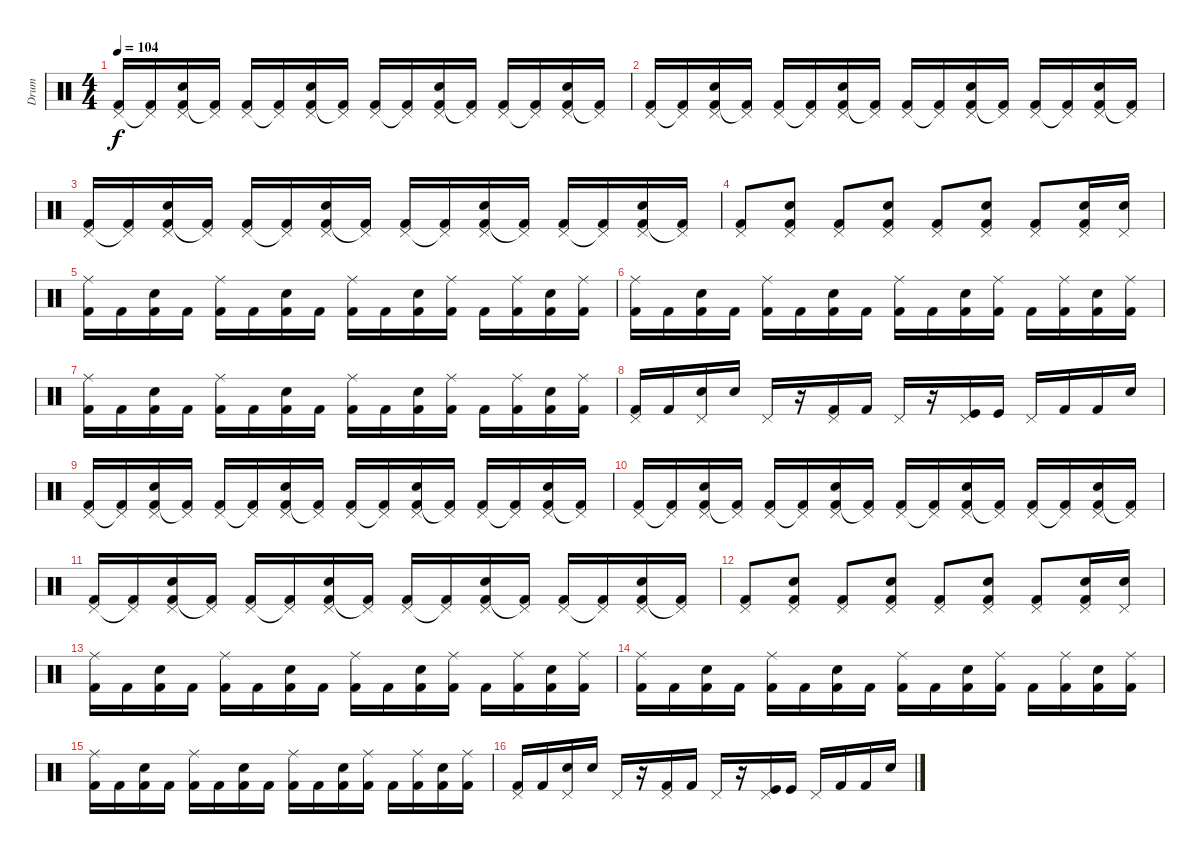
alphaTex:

\track ("Drum" "Drum") {instrument percussion}
\staff {score}
\articulation defaults
\ts (4 4)
\tempo 104
\clef neutral
\ks c
("Kick (hit) 2" "Pedal Hi-Hat (hit)").16{dy f} ("Kick (hit) 2" "Pedal Hi-Hat (hit)"{t}).16 ("Snare (hit) 2" "Kick (hit) 2" "Pedal Hi-Hat (hit)").16 ("Kick (hit) 2" "Pedal Hi-Hat (hit)"{t}).16 ("Kick (hit) 2" "Pedal Hi-Hat (hit)").16 ("Kick (hit) 2" "Pedal Hi-Hat (hit)"{t}).16 ("Snare (hit) 2" "Kick (hit) 2" "Pedal Hi-Hat (hit)").16 ("Kick (hit) 2" "Pedal Hi-Hat (hit)"{t}).16 ("Kick (hit) 2" "Pedal Hi-Hat (hit)").16 ("Kick (hit) 2" "Pedal Hi-Hat (hit)"{t}).16 ("Snare (hit) 2" "Kick (hit) 2" "Pedal Hi-Hat (hit)").16 ("Kick (hit) 2" "Pedal Hi-Hat (hit)"{t}).16 ("Kick (hit) 2" "Pedal Hi-Hat (hit)").16 ("Kick (hit) 2" "Pedal Hi-Hat (hit)"{t}).16 ("Snare (hit) 2" "Kick (hit) 2" "Pedal Hi-Hat (hit)").16 ("Kick (hit) 2" "Pedal Hi-Hat (hit)"{t}).16 |
("Kick (hit) 2" "Pedal Hi-Hat (hit)").16 ("Kick (hit) 2" "Pedal Hi-Hat (hit)"{t}).16 ("Snare (hit) 2" "Kick (hit) 2" "Pedal Hi-Hat (hit)").16 ("Kick (hit) 2" "Pedal Hi-Hat (hit)"{t}).16 ("Kick (hit) 2" "Pedal Hi-Hat (hit)").16 ("Kick (hit) 2" "Pedal Hi-Hat (hit)"{t}).16 ("Snare (hit) 2" "Kick (hit) 2" "Pedal Hi-Hat (hit)").16 ("Kick (hit) 2" "Pedal Hi-Hat (hit)"{t}).16 ("Kick (hit) 2" "Pedal Hi-Hat (hit)").16 ("Kick (hit) 2" "Pedal Hi-Hat (hit)"{t}).16 ("Snare (hit) 2" "Kick (hit) 2" "Pedal Hi-Hat (hit)").16 ("Kick (hit) 2" "Pedal Hi-Hat (hit)"{t}).16 ("Kick (hit) 2" "Pedal Hi-Hat (hit)").16 ("Kick (hit) 2" "Pedal Hi-Hat (hit)"{t}).16 ("Snare (hit) 2" "Kick (hit) 2" "Pedal Hi-Hat (hit)").16 ("Kick (hit) 2" "Pedal Hi-Hat (hit)"{t}).16 |
("Kick (hit) 2" "Pedal Hi-Hat (hit)").16 ("Kick (hit) 2" "Pedal Hi-Hat (hit)"{t}).16 ("Snare (hit) 2" "Kick (hit) 2" "Pedal Hi-Hat (hit)").16 ("Kick (hit) 2" "Pedal Hi-Hat (hit)"{t}).16 ("Kick (hit) 2" "Pedal Hi-Hat (hit)").16 ("Kick (hit) 2" "Pedal Hi-Hat (hit)"{t}).16 ("Snare (hit) 2" "Kick (hit) 2" "Pedal Hi-Hat (hit)").16 ("Kick (hit) 2" "Pedal Hi-Hat (hit)"{t}).16 ("Kick (hit) 2" "Pedal Hi-Hat (hit)").16 ("Kick (hit) 2" "Pedal Hi-Hat (hit)"{t}).16 ("Snare (hit) 2" "Kick (hit) 2" "Pedal Hi-Hat (hit)").16 ("Kick (hit) 2" "Pedal Hi-Hat (hit)"{t}).16 ("Kick (hit) 2" "Pedal Hi-Hat (hit)").16 ("Kick (hit) 2" "Pedal Hi-Hat (hit)"{t}).16 ("Snare (hit) 2" "Kick (hit) 2" "Pedal Hi-Hat (hit)").16 ("Kick (hit) 2" "Pedal Hi-Hat (hit)"{t}).16 |
("Kick (hit) 2" "Pedal Hi-Hat (hit)").8 ("Snare (hit) 2" "Kick (hit) 2" "Pedal Hi-Hat (hit)").8 ("Kick (hit) 2" "Pedal Hi-Hat (hit)").8 ("Snare (hit) 2" "Kick (hit) 2" "Pedal Hi-Hat (hit)").8 ("Kick (hit) 2" "Pedal Hi-Hat (hit)").8 ("Snare (hit) 2" "Kick (hit) 2" "Pedal Hi-Hat (hit)").8 ("Kick (hit) 2" "Pedal Hi-Hat (hit)").8 ("Snare (hit) 2" "Kick (hit) 2" "Pedal Hi-Hat (hit)").16 ("Snare (hit) 2" "Pedal Hi-Hat (hit)").16 |
("Kick (hit) 2" "Ride (middle)").16 "Kick (hit) 2".16 ("Snare (hit) 2" "Kick (hit) 2").16 "Kick (hit) 2".16 ("Kick (hit) 2" "Ride (middle)").16 "Kick (hit) 2".16 ("Snare (hit) 2" "Kick (hit) 2").16 "Kick (hit) 2".16 ("Kick (hit) 2" "Ride (middle)").16 "Kick (hit) 2".16 ("Snare (hit) 2" "Kick (hit) 2").16 ("Kick (hit) 2" "Ride (middle)").16 "Kick (hit) 2".16 ("Kick (hit) 2" "Ride (middle)").16 ("Snare (hit) 2" "Kick (hit) 2").16 ("Kick (hit) 2" "Ride (middle)").16 |
("Kick (hit) 2" "Ride (middle)").16 "Kick (hit) 2".16 ("Snare (hit) 2" "Kick (hit) 2").16 "Kick (hit) 2".16 ("Kick (hit) 2" "Ride (middle)").16 "Kick (hit) 2".16 ("Snare (hit) 2" "Kick (hit) 2").16 "Kick (hit) 2".16 ("Kick (hit) 2" "Ride (middle)").16 "Kick (hit) 2".16 ("Snare (hit) 2" "Kick (hit) 2").16 ("Kick (hit) 2" "Ride (middle)").16 "Kick (hit) 2".16 ("Kick (hit) 2" "Ride (middle)").16 ("Snare (hit) 2" "Kick (hit) 2").16 ("Kick (hit) 2" "Ride (middle)").16 |
("Kick (hit) 2" "Ride (middle)").16 "Kick (hit) 2".16 ("Snare (hit) 2" "Kick (hit) 2").16 "Kick (hit) 2".16 ("Kick (hit) 2" "Ride (middle)").16 "Kick (hit) 2".16 ("Snare (hit) 2" "Kick (hit) 2").16 "Kick (hit) 2".16 ("Kick (hit) 2" "Ride (middle)").16 "Kick (hit) 2".16 ("Snare (hit) 2" "Kick (hit) 2").16 ("Kick (hit) 2" "Ride (middle)").16 "Kick (hit) 2".16 ("Kick (hit) 2" "Ride (middle)").16 ("Snare (hit) 2" "Kick (hit) 2").16 ("Kick (hit) 2" "Ride (middle)").16 |
("Kick (hit) 2" "Pedal Hi-Hat (hit)").16 "Kick (hit) 2".16 ("Snare (hit) 2" "Pedal Hi-Hat (hit)").16 "Snare (hit) 2".16 "Pedal Hi-Hat (hit)".16 r.16 ("Kick (hit) 2" "Pedal Hi-Hat (hit)").16 "Kick (hit) 2".16 "Pedal Hi-Hat (hit)".16 r.16 ("Kick (hit)" "Pedal Hi-Hat (hit)").16 "Kick (hit)".16 "Pedal Hi-Hat (hit)".16 "Kick (hit) 2".16 "Kick (hit) 2".16 "Snare (hit) 2".16 |
("Kick (hit) 2" "Pedal Hi-Hat (hit)").16 ("Kick (hit) 2" "Pedal Hi-Hat (hit)"{t}).16 ("Snare (hit) 2" "Kick (hit) 2" "Pedal Hi-Hat (hit)").16 ("Kick (hit) 2" "Pedal Hi-Hat (hit)"{t}).16 ("Kick (hit) 2" "Pedal Hi-Hat (hit)").16 ("Kick (hit) 2" "Pedal Hi-Hat (hit)"{t}).16 ("Snare (hit) 2" "Kick (hit) 2" "Pedal Hi-Hat (hit)").16 ("Kick (hit) 2" "Pedal Hi-Hat (hit)"{t}).16 ("Kick (hit) 2" "Pedal Hi-Hat (hit)").16 ("Kick (hit) 2" "Pedal Hi-Hat (hit)"{t}).16 ("Snare (hit) 2" "Kick (hit) 2" "Pedal Hi-Hat (hit)").16 ("Kick (hit) 2" "Pedal Hi-Hat (hit)"{t}).16 ("Kick (hit) 2" "Pedal Hi-Hat (hit)").16 ("Kick (hit) 2" "Pedal Hi-Hat (hit)"{t}).16 ("Snare (hit) 2" "Kick (hit) 2" "Pedal Hi-Hat (hit)").16 ("Kick (hit) 2" "Pedal Hi-Hat (hit)"{t}).16 |
("Kick (hit) 2" "Pedal Hi-Hat (hit)").16 ("Kick (hit) 2" "Pedal Hi-Hat (hit)"{t}).16 ("Snare (hit) 2" "Kick (hit) 2" "Pedal Hi-Hat (hit)").16 ("Kick (hit) 2" "Pedal Hi-Hat (hit)"{t}).16 ("Kick (hit) 2" "Pedal Hi-Hat (hit)").16 ("Kick (hit) 2" "Pedal Hi-Hat (hit)"{t}).16 ("Snare (hit) 2" "Kick (hit) 2" "Pedal Hi-Hat (hit)").16 ("Kick (hit) 2" "Pedal Hi-Hat (hit)"{t}).16 ("Kick (hit) 2" "Pedal Hi-Hat (hit)").16 ("Kick (hit) 2" "Pedal Hi-Hat (hit)"{t}).16 ("Snare (hit) 2" "Kick (hit) 2" "Pedal Hi-Hat (hit)").16 ("Kick (hit) 2" "Pedal Hi-Hat (hit)"{t}).16 ("Kick (hit) 2" "Pedal Hi-Hat (hit)").16 ("Kick (hit) 2" "Pedal Hi-Hat (hit)"{t}).16 ("Snare (hit) 2" "Kick (hit) 2" "Pedal Hi-Hat (hit)").16 ("Kick (hit) 2" "Pedal Hi-Hat (hit)"{t}).16 |
("Kick (hit) 2" "Pedal Hi-Hat (hit)").16 ("Kick (hit) 2" "Pedal Hi-Hat (hit)"{t}).16 ("Snare (hit) 2" "Kick (hit) 2" "Pedal Hi-Hat (hit)").16 ("Kick (hit) 2" "Pedal Hi-Hat (hit)"{t}).16 ("Kick (hit) 2" "Pedal Hi-Hat (hit)").16 ("Kick (hit) 2" "Pedal Hi-Hat (hit)"{t}).16 ("Snare (hit) 2" "Kick (hit) 2" "Pedal Hi-Hat (hit)").16 ("Kick (hit) 2" "Pedal Hi-Hat (hit)"{t}).16 ("Kick (hit) 2" "Pedal Hi-Hat (hit)").16 ("Kick (hit) 2" "Pedal Hi-Hat (hit)"{t}).16 ("Snare (hit) 2" "Kick (hit) 2" "Pedal Hi-Hat (hit)").16 ("Kick (hit) 2" "Pedal Hi-Hat (hit)"{t}).16 ("Kick (hit) 2" "Pedal Hi-Hat (hit)").16 ("Kick (hit) 2" "Pedal Hi-Hat (hit)"{t}).16 ("Snare (hit) 2" "Kick (hit) 2" "Pedal Hi-Hat (hit)").16 ("Kick (hit) 2" "Pedal Hi-Hat (hit)"{t}).16 |
("Kick (hit) 2" "Pedal Hi-Hat (hit)").8 ("Snare (hit) 2" "Kick (hit) 2" "Pedal Hi-Hat (hit)").8 ("Kick (hit) 2" "Pedal Hi-Hat (hit)").8 ("Snare (hit) 2" "Kick (hit) 2" "Pedal Hi-Hat (hit)").8 ("Kick (hit) 2" "Pedal Hi-Hat (hit)").8 ("Snare (hit) 2" "Kick (hit) 2" "Pedal Hi-Hat (hit)").8 ("Kick (hit) 2" "Pedal Hi-Hat (hit)").8 ("Snare (hit) 2" "Kick (hit) 2" "Pedal Hi-Hat (hit)").16 ("Snare (hit) 2" "Pedal Hi-Hat (hit)").16 |
("Kick (hit) 2" "Ride (middle)").16 "Kick (hit) 2".16 ("Snare (hit) 2" "Kick (hit) 2").16 "Kick (hit) 2".16 ("Kick (hit) 2" "Ride (middle)").16 "Kick (hit) 2".16 ("Snare (hit) 2" "Kick (hit) 2").16 "Kick (hit) 2".16 ("Kick (hit) 2" "Ride (middle)").16 "Kick (hit) 2".16 ("Snare (hit) 2" "Kick (hit) 2").16 ("Kick (hit) 2" "Ride (middle)").16 "Kick (hit) 2".16 ("Kick (hit) 2" "Ride (middle)").16 ("Snare (hit) 2" "Kick (hit) 2").16 ("Kick (hit) 2" "Ride (middle)").16 |
("Kick (hit) 2" "Ride (middle)").16 "Kick (hit) 2".16 ("Snare (hit) 2" "Kick (hit) 2").16 "Kick (hit) 2".16 ("Kick (hit) 2" "Ride (middle)").16 "Kick (hit) 2".16 ("Snare (hit) 2" "Kick (hit) 2").16 "Kick (hit) 2".16 ("Kick (hit) 2" "Ride (middle)").16 "Kick (hit) 2".16 ("Snare (hit) 2" "Kick (hit) 2").16 ("Kick (hit) 2" "Ride (middle)").16 "Kick (hit) 2".16 ("Kick (hit) 2" "Ride (middle)").16 ("Snare (hit) 2" "Kick (hit) 2").16 ("Kick (hit) 2" "Ride (middle)").16 |
("Kick (hit) 2" "Ride (middle)").16 "Kick (hit) 2".16 ("Snare (hit) 2" "Kick (hit) 2").16 "Kick (hit) 2".16 ("Kick (hit) 2" "Ride (middle)").16 "Kick (hit) 2".16 ("Snare (hit) 2" "Kick (hit) 2").16 "Kick (hit) 2".16 ("Kick (hit) 2" "Ride (middle)").16 "Kick (hit) 2".16 ("Snare (hit) 2" "Kick (hit) 2").16 ("Kick (hit) 2" "Ride (middle)").16 "Kick (hit) 2".16 ("Kick (hit) 2" "Ride (middle)").16 ("Snare (hit) 2" "Kick (hit) 2").16 ("Kick (hit) 2" "Ride (middle)").16 |
("Kick (hit) 2" "Pedal Hi-Hat (hit)").16 "Kick (hit) 2".16 ("Snare (hit) 2" "Pedal Hi-Hat (hit)").16 "Snare (hit) 2".16 "Pedal Hi-Hat (hit)".16 r.16 ("Kick (hit) 2" "Pedal Hi-Hat (hit)").16 "Kick (hit) 2".16 "Pedal Hi-Hat (hit)".16 r.16 ("Kick (hit)" "Pedal Hi-Hat (hit)").16 "Kick (hit)".16 "Pedal Hi-Hat (hit)".16 "Kick (hit) 2".16 "Kick (hit) 2".16 "Snare (hit) 2".16
